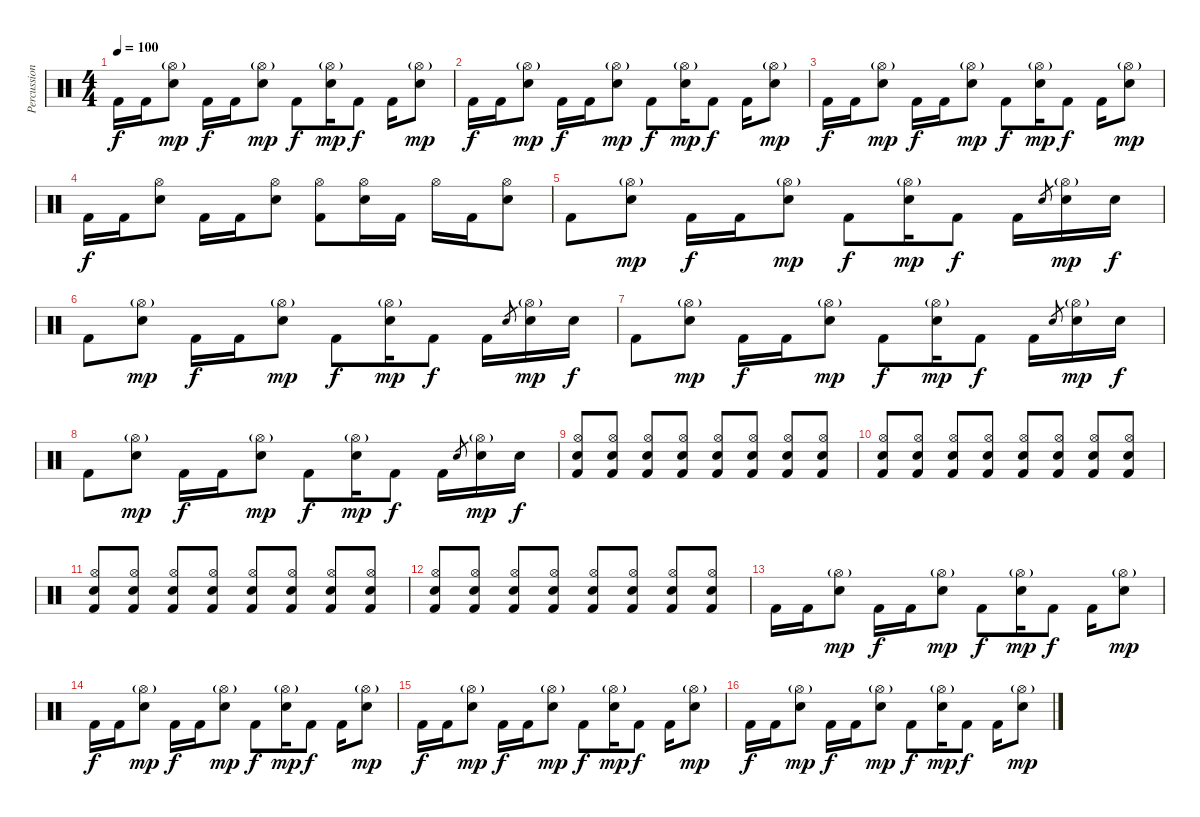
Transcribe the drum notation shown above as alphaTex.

\track ("Percussion" "Percussion") {instrument percussion}
\staff {score}
\articulation defaults
\ts (4 4)
\tempo 100
\clef neutral
\ks c "Kick (hit) 2".16{dy f} "Kick (hit) 2".16
("Hi-Hat (open)"{g} "Snare (hit) 2").8{dy mp} "Kick (hit) 2".16{dy f} "Kick (hit) 2".16 ("Hi-Hat (open)"{g} "Snare (hit) 2").8{dy mp} "Kick (hit) 2".8{dy f} ("Hi-Hat (open)"{g} "Snare (hit) 2").16{dy mp} "Kick (hit) 2".8{dy f} "Kick (hit) 2".16 ("Hi-Hat (open)"{g} "Snare (hit) 2").8{dy mp} |
"Kick (hit) 2".16{dy f} "Kick (hit) 2".16 ("Hi-Hat (open)"{g} "Snare (hit) 2").8{dy mp} "Kick (hit) 2".16{dy f} "Kick (hit) 2".16 ("Hi-Hat (open)"{g} "Snare (hit) 2").8{dy mp} "Kick (hit) 2".8{dy f} ("Hi-Hat (open)"{g} "Snare (hit) 2").16{dy mp} "Kick (hit) 2".8{dy f} "Kick (hit) 2".16 ("Hi-Hat (open)"{g} "Snare (hit) 2").8{dy mp} |
"Kick (hit) 2".16{dy f} "Kick (hit) 2".16 ("Hi-Hat (open)"{g} "Snare (hit) 2").8{dy mp} "Kick (hit) 2".16{dy f} "Kick (hit) 2".16 ("Hi-Hat (open)"{g} "Snare (hit) 2").8{dy mp} "Kick (hit) 2".8{dy f} ("Hi-Hat (open)"{g} "Snare (hit) 2").16{dy mp} "Kick (hit) 2".8{dy f} "Kick (hit) 2".16 ("Hi-Hat (open)"{g} "Snare (hit) 2").8{dy mp} |
"Kick (hit) 2".16{dy f} "Kick (hit) 2".16 ("Hi-Hat (open)" "Snare (hit) 2").8 "Kick (hit) 2".16 "Kick (hit) 2".16 ("Hi-Hat (open)" "Snare (hit) 2").8 ("Hi-Hat (open)" "Kick (hit) 2").8 ("Hi-Hat (open)" "Snare (hit) 2").16 "Kick (hit) 2".16 "Hi-Hat (open)".16 "Kick (hit) 2".16 ("Hi-Hat (open)" "Snare (hit) 2").8 |
"Kick (hit) 2".8 ("Hi-Hat (open)"{g} "Snare (hit) 2").8{dy mp} "Kick (hit) 2".16{dy f} "Kick (hit) 2".16 ("Hi-Hat (open)"{g} "Snare (hit) 2").8{dy mp} "Kick (hit) 2".8{dy f} ("Hi-Hat (open)"{g} "Snare (hit) 2").16{dy mp} "Kick (hit) 2".8{dy f} "Kick (hit) 2".16 "Snare (hit) 2".8{gr} ("Hi-Hat (open)"{g} "Snare (hit) 2").16{dy mp} "Snare (hit) 2".16{dy f} |
"Kick (hit) 2".8 ("Hi-Hat (open)"{g} "Snare (hit) 2").8{dy mp} "Kick (hit) 2".16{dy f} "Kick (hit) 2".16 ("Hi-Hat (open)"{g} "Snare (hit) 2").8{dy mp} "Kick (hit) 2".8{dy f} ("Hi-Hat (open)"{g} "Snare (hit) 2").16{dy mp} "Kick (hit) 2".8{dy f} "Kick (hit) 2".16 "Snare (hit) 2".8{gr} ("Hi-Hat (open)"{g} "Snare (hit) 2").16{dy mp} "Snare (hit) 2".16{dy f} |
"Kick (hit) 2".8 ("Hi-Hat (open)"{g} "Snare (hit) 2").8{dy mp} "Kick (hit) 2".16{dy f} "Kick (hit) 2".16 ("Hi-Hat (open)"{g} "Snare (hit) 2").8{dy mp} "Kick (hit) 2".8{dy f} ("Hi-Hat (open)"{g} "Snare (hit) 2").16{dy mp} "Kick (hit) 2".8{dy f} "Kick (hit) 2".16 "Snare (hit) 2".8{gr} ("Hi-Hat (open)"{g} "Snare (hit) 2").16{dy mp} "Snare (hit) 2".16{dy f} |
"Kick (hit) 2".8 ("Hi-Hat (open)"{g} "Snare (hit) 2").8{dy mp} "Kick (hit) 2".16{dy f} "Kick (hit) 2".16 ("Hi-Hat (open)"{g} "Snare (hit) 2").8{dy mp} "Kick (hit) 2".8{dy f} ("Hi-Hat (open)"{g} "Snare (hit) 2").16{dy mp} "Kick (hit) 2".8{dy f} "Kick (hit) 2".16 "Snare (hit) 2".8{gr} ("Hi-Hat (open)"{g} "Snare (hit) 2").16{dy mp} "Snare (hit) 2".16{dy f} |
("Hi-Hat (open)" "Snare (hit) 2" "Kick (hit) 2").8 ("Hi-Hat (open)" "Snare (hit) 2" "Kick (hit) 2").8 ("Hi-Hat (open)" "Snare (hit) 2" "Kick (hit) 2").8 ("Hi-Hat (open)" "Snare (hit) 2" "Kick (hit) 2").8 ("Hi-Hat (open)" "Snare (hit) 2" "Kick (hit) 2").8 ("Hi-Hat (open)" "Snare (hit) 2" "Kick (hit) 2").8 ("Hi-Hat (open)" "Snare (hit) 2" "Kick (hit) 2").8 ("Hi-Hat (open)" "Snare (hit) 2" "Kick (hit) 2").8 |
("Hi-Hat (open)" "Snare (hit) 2" "Kick (hit) 2").8 ("Hi-Hat (open)" "Snare (hit) 2" "Kick (hit) 2").8 ("Hi-Hat (open)" "Snare (hit) 2" "Kick (hit) 2").8 ("Hi-Hat (open)" "Snare (hit) 2" "Kick (hit) 2").8 ("Hi-Hat (open)" "Snare (hit) 2" "Kick (hit) 2").8 ("Hi-Hat (open)" "Snare (hit) 2" "Kick (hit) 2").8 ("Hi-Hat (open)" "Snare (hit) 2" "Kick (hit) 2").8 ("Hi-Hat (open)" "Snare (hit) 2" "Kick (hit) 2").8 |
("Hi-Hat (open)" "Snare (hit) 2" "Kick (hit) 2").8 ("Hi-Hat (open)" "Snare (hit) 2" "Kick (hit) 2").8 ("Hi-Hat (open)" "Snare (hit) 2" "Kick (hit) 2").8 ("Hi-Hat (open)" "Snare (hit) 2" "Kick (hit) 2").8 ("Hi-Hat (open)" "Snare (hit) 2" "Kick (hit) 2").8 ("Hi-Hat (open)" "Snare (hit) 2" "Kick (hit) 2").8 ("Hi-Hat (open)" "Snare (hit) 2" "Kick (hit) 2").8 ("Hi-Hat (open)" "Snare (hit) 2" "Kick (hit) 2").8 |
("Hi-Hat (open)" "Snare (hit) 2" "Kick (hit) 2").8 ("Hi-Hat (open)" "Snare (hit) 2" "Kick (hit) 2").8 ("Hi-Hat (open)" "Snare (hit) 2" "Kick (hit) 2").8 ("Hi-Hat (open)" "Snare (hit) 2" "Kick (hit) 2").8 ("Hi-Hat (open)" "Snare (hit) 2" "Kick (hit) 2").8 ("Hi-Hat (open)" "Snare (hit) 2" "Kick (hit) 2").8 ("Hi-Hat (open)" "Snare (hit) 2" "Kick (hit) 2").8 ("Hi-Hat (open)" "Snare (hit) 2" "Kick (hit) 2").8 |
"Kick (hit) 2".16 "Kick (hit) 2".16 ("Hi-Hat (open)"{g} "Snare (hit) 2").8{dy mp} "Kick (hit) 2".16{dy f} "Kick (hit) 2".16 ("Hi-Hat (open)"{g} "Snare (hit) 2").8{dy mp} "Kick (hit) 2".8{dy f} ("Hi-Hat (open)"{g} "Snare (hit) 2").16{dy mp} "Kick (hit) 2".8{dy f} "Kick (hit) 2".16 ("Hi-Hat (open)"{g} "Snare (hit) 2").8{dy mp} |
"Kick (hit) 2".16{dy f} "Kick (hit) 2".16 ("Hi-Hat (open)"{g} "Snare (hit) 2").8{dy mp} "Kick (hit) 2".16{dy f} "Kick (hit) 2".16 ("Hi-Hat (open)"{g} "Snare (hit) 2").8{dy mp} "Kick (hit) 2".8{dy f} ("Hi-Hat (open)"{g} "Snare (hit) 2").16{dy mp} "Kick (hit) 2".8{dy f} "Kick (hit) 2".16 ("Hi-Hat (open)"{g} "Snare (hit) 2").8{dy mp} |
"Kick (hit) 2".16{dy f} "Kick (hit) 2".16 ("Hi-Hat (open)"{g} "Snare (hit) 2").8{dy mp} "Kick (hit) 2".16{dy f} "Kick (hit) 2".16 ("Hi-Hat (open)"{g} "Snare (hit) 2").8{dy mp} "Kick (hit) 2".8{dy f} ("Hi-Hat (open)"{g} "Snare (hit) 2").16{dy mp} "Kick (hit) 2".8{dy f} "Kick (hit) 2".16 ("Hi-Hat (open)"{g} "Snare (hit) 2").8{dy mp} |
"Kick (hit) 2".16{dy f} "Kick (hit) 2".16 ("Hi-Hat (open)"{g} "Snare (hit) 2").8{dy mp} "Kick (hit) 2".16{dy f} "Kick (hit) 2".16 ("Hi-Hat (open)"{g} "Snare (hit) 2").8{dy mp} "Kick (hit) 2".8{dy f} ("Hi-Hat (open)"{g} "Snare (hit) 2").16{dy mp} "Kick (hit) 2".8{dy f} "Kick (hit) 2".16 ("Hi-Hat (open)"{g} "Snare (hit) 2").8{dy mp}
